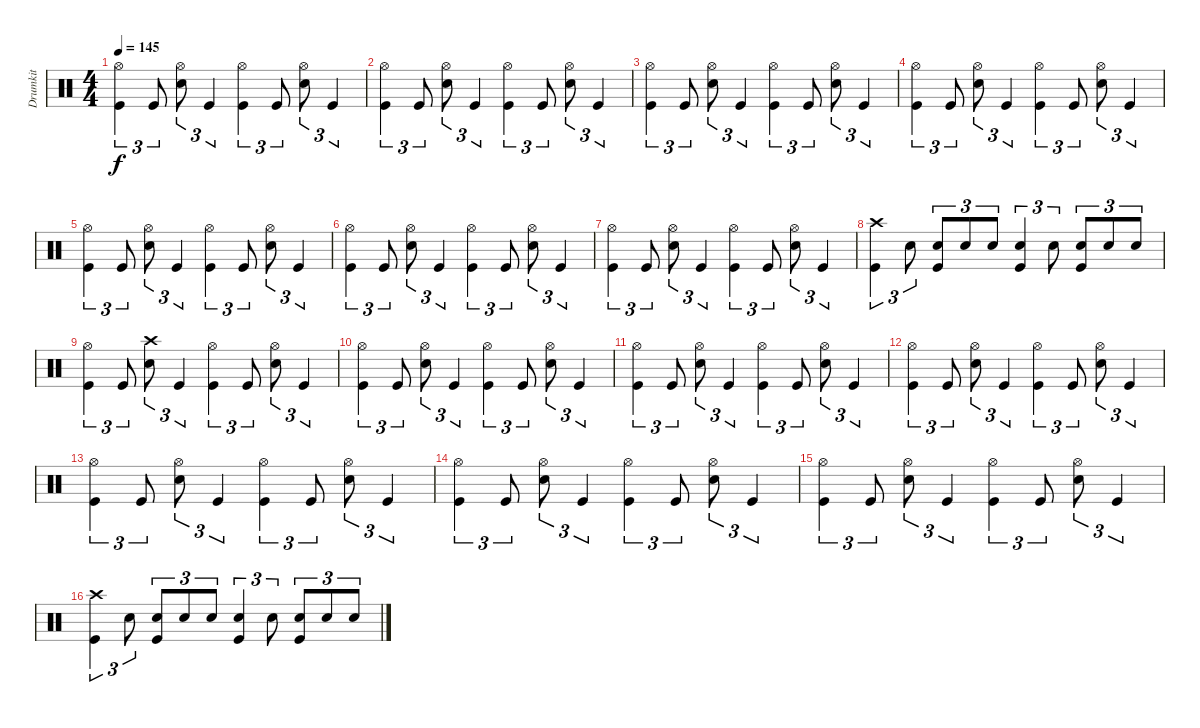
\track ("Drumkit" "Drumkit") {instrument percussion}
\staff {score}
\articulation defaults
\ts (4 4)
\tempo 145
\clef neutral
\ks c
("Hi-Hat (open)" "Kick (hit)").4{tu (3 2) dy f} "Kick (hit)".8{tu (3 2)} ("Hi-Hat (open)" "Snare (hit) 2").8{tu (3 2)} "Kick (hit)".4{tu (3 2)} ("Hi-Hat (open)" "Kick (hit)").4{tu (3 2)} "Kick (hit)".8{tu (3 2)} ("Hi-Hat (open)" "Snare (hit) 2").8{tu (3 2)} "Kick (hit)".4{tu (3 2)} |
("Hi-Hat (open)" "Kick (hit)").4{tu (3 2)} "Kick (hit)".8{tu (3 2)} ("Hi-Hat (open)" "Snare (hit) 2").8{tu (3 2)} "Kick (hit)".4{tu (3 2)} ("Hi-Hat (open)" "Kick (hit)").4{tu (3 2)} "Kick (hit)".8{tu (3 2)} ("Hi-Hat (open)" "Snare (hit) 2").8{tu (3 2)} "Kick (hit)".4{tu (3 2)} |
("Hi-Hat (open)" "Kick (hit)").4{tu (3 2)} "Kick (hit)".8{tu (3 2)} ("Hi-Hat (open)" "Snare (hit) 2").8{tu (3 2)} "Kick (hit)".4{tu (3 2)} ("Hi-Hat (open)" "Kick (hit)").4{tu (3 2)} "Kick (hit)".8{tu (3 2)} ("Hi-Hat (open)" "Snare (hit) 2").8{tu (3 2)} "Kick (hit)".4{tu (3 2)} |
("Hi-Hat (open)" "Kick (hit)").4{tu (3 2)} "Kick (hit)".8{tu (3 2)} ("Hi-Hat (open)" "Snare (hit) 2").8{tu (3 2)} "Kick (hit)".4{tu (3 2)} ("Hi-Hat (open)" "Kick (hit)").4{tu (3 2)} "Kick (hit)".8{tu (3 2)} ("Hi-Hat (open)" "Snare (hit) 2").8{tu (3 2)} "Kick (hit)".4{tu (3 2)} |
("Hi-Hat (open)" "Kick (hit)").4{tu (3 2)} "Kick (hit)".8{tu (3 2)} ("Hi-Hat (open)" "Snare (hit) 2").8{tu (3 2)} "Kick (hit)".4{tu (3 2)} ("Hi-Hat (open)" "Kick (hit)").4{tu (3 2)} "Kick (hit)".8{tu (3 2)} ("Hi-Hat (open)" "Snare (hit) 2").8{tu (3 2)} "Kick (hit)".4{tu (3 2)} |
("Hi-Hat (open)" "Kick (hit)").4{tu (3 2)} "Kick (hit)".8{tu (3 2)} ("Hi-Hat (open)" "Snare (hit) 2").8{tu (3 2)} "Kick (hit)".4{tu (3 2)} ("Hi-Hat (open)" "Kick (hit)").4{tu (3 2)} "Kick (hit)".8{tu (3 2)} ("Hi-Hat (open)" "Snare (hit) 2").8{tu (3 2)} "Kick (hit)".4{tu (3 2)} |
("Hi-Hat (open)" "Kick (hit)").4{tu (3 2)} "Kick (hit)".8{tu (3 2)} ("Hi-Hat (open)" "Snare (hit) 2").8{tu (3 2)} "Kick (hit)".4{tu (3 2)} ("Hi-Hat (open)" "Kick (hit)").4{tu (3 2)} "Kick (hit)".8{tu (3 2)} ("Hi-Hat (open)" "Snare (hit) 2").8{tu (3 2)} "Kick (hit)".4{tu (3 2)} |
("Crash high (hit)" "Kick (hit)").4{tu (3 2)} "Snare (hit) 2".8{tu (3 2)} ("Snare (hit) 2" "Kick (hit)").8{tu (3 2)} "Snare (hit) 2".8{tu (3 2)} "Snare (hit) 2".8{tu (3 2)} ("Snare (hit) 2" "Kick (hit)").4{tu (3 2)} "Snare (hit) 2".8{tu (3 2)} ("Snare (hit) 2" "Kick (hit)").8{tu (3 2)} "Snare (hit) 2".8{tu (3 2)} "Snare (hit) 2".8{tu (3 2)} |
("Hi-Hat (open)" "Kick (hit)").4{tu (3 2)} "Kick (hit)".8{tu (3 2)} ("Crash high (hit)" "Snare (hit) 2").8{tu (3 2)} "Kick (hit)".4{tu (3 2)} ("Hi-Hat (open)" "Kick (hit)").4{tu (3 2)} "Kick (hit)".8{tu (3 2)} ("Hi-Hat (open)" "Snare (hit) 2").8{tu (3 2)} "Kick (hit)".4{tu (3 2)} |
("Hi-Hat (open)" "Kick (hit)").4{tu (3 2)} "Kick (hit)".8{tu (3 2)} ("Hi-Hat (open)" "Snare (hit) 2").8{tu (3 2)} "Kick (hit)".4{tu (3 2)} ("Hi-Hat (open)" "Kick (hit)").4{tu (3 2)} "Kick (hit)".8{tu (3 2)} ("Hi-Hat (open)" "Snare (hit) 2").8{tu (3 2)} "Kick (hit)".4{tu (3 2)} |
("Hi-Hat (open)" "Kick (hit)").4{tu (3 2)} "Kick (hit)".8{tu (3 2)} ("Hi-Hat (open)" "Snare (hit) 2").8{tu (3 2)} "Kick (hit)".4{tu (3 2)} ("Hi-Hat (open)" "Kick (hit)").4{tu (3 2)} "Kick (hit)".8{tu (3 2)} ("Hi-Hat (open)" "Snare (hit) 2").8{tu (3 2)} "Kick (hit)".4{tu (3 2)} |
("Hi-Hat (open)" "Kick (hit)").4{tu (3 2)} "Kick (hit)".8{tu (3 2)} ("Hi-Hat (open)" "Snare (hit) 2").8{tu (3 2)} "Kick (hit)".4{tu (3 2)} ("Hi-Hat (open)" "Kick (hit)").4{tu (3 2)} "Kick (hit)".8{tu (3 2)} ("Hi-Hat (open)" "Snare (hit) 2").8{tu (3 2)} "Kick (hit)".4{tu (3 2)} |
("Hi-Hat (open)" "Kick (hit)").4{tu (3 2)} "Kick (hit)".8{tu (3 2)} ("Hi-Hat (open)" "Snare (hit) 2").8{tu (3 2)} "Kick (hit)".4{tu (3 2)} ("Hi-Hat (open)" "Kick (hit)").4{tu (3 2)} "Kick (hit)".8{tu (3 2)} ("Hi-Hat (open)" "Snare (hit) 2").8{tu (3 2)} "Kick (hit)".4{tu (3 2)} |
("Hi-Hat (open)" "Kick (hit)").4{tu (3 2)} "Kick (hit)".8{tu (3 2)} ("Hi-Hat (open)" "Snare (hit) 2").8{tu (3 2)} "Kick (hit)".4{tu (3 2)} ("Hi-Hat (open)" "Kick (hit)").4{tu (3 2)} "Kick (hit)".8{tu (3 2)} ("Hi-Hat (open)" "Snare (hit) 2").8{tu (3 2)} "Kick (hit)".4{tu (3 2)} |
("Hi-Hat (open)" "Kick (hit)").4{tu (3 2)} "Kick (hit)".8{tu (3 2)} ("Hi-Hat (open)" "Snare (hit) 2").8{tu (3 2)} "Kick (hit)".4{tu (3 2)} ("Hi-Hat (open)" "Kick (hit)").4{tu (3 2)} "Kick (hit)".8{tu (3 2)} ("Hi-Hat (open)" "Snare (hit) 2").8{tu (3 2)} "Kick (hit)".4{tu (3 2)} |
("Crash high (hit)" "Kick (hit)").4{tu (3 2)} "Snare (hit) 2".8{tu (3 2)} ("Snare (hit) 2" "Kick (hit)").8{tu (3 2)} "Snare (hit) 2".8{tu (3 2)} "Snare (hit) 2".8{tu (3 2)} ("Snare (hit) 2" "Kick (hit)").4{tu (3 2)} "Snare (hit) 2".8{tu (3 2)} ("Snare (hit) 2" "Kick (hit)").8{tu (3 2)} "Snare (hit) 2".8{tu (3 2)} "Snare (hit) 2".8{tu (3 2)}
